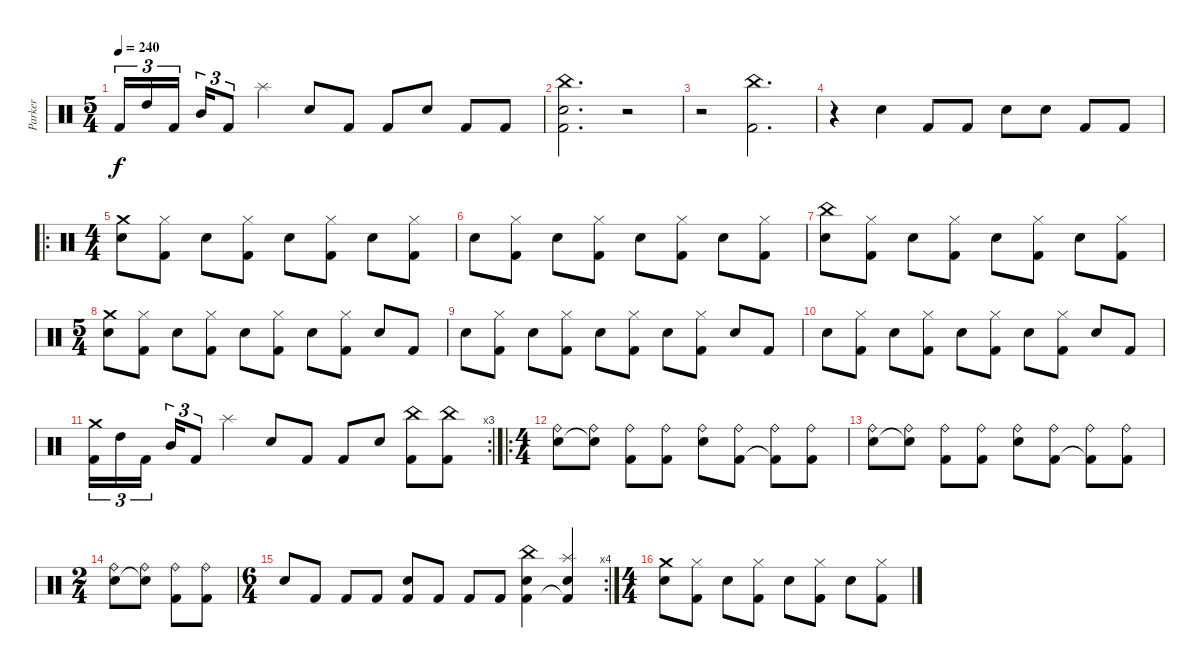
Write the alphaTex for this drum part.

\track ("Parker" "Parker") {instrument percussion}
\staff {score}
\articulation defaults
\ts (5 4)
\tempo 240
\clef neutral
\ks c "Kick (hit) 2".16{tu (3 2) dy f} "High Tom (hit)".16{tu (3 2)} "Kick (hit) 2".16{tu (3 2) beam splitsecondary} "Mid Tom (hit)".16{tu (3 2)} "Kick (hit) 2".8{tu (3 2)} "Splash (hit)".4 "Electric Snare (hit)".8 "Kick (hit) 2".8 "Kick (hit) 2".8 "Electric Snare (hit)".8 "Kick (hit) 2".8 "Kick (hit) 2".8
|
("China (hit)" "Electric Snare (hit)" "Kick (hit) 2").2{d} r.2 |
r.2 ("China (hit)" "Kick (hit) 2").2{d} |
r.4 "Electric Snare (hit)".4 "Kick (hit) 2".8 "Kick (hit) 2".8 "Electric Snare (hit)".8 "Electric Snare (hit)".8 "Kick (hit) 2".8 "Kick (hit) 2".8 |
\ro
\ts (4 4)
("Crash medium (hit)" "Electric Snare (hit)").8 ("Hi-Hat (closed)" "Kick (hit) 2").8 "Electric Snare (hit)".8 ("Hi-Hat (closed)" "Kick (hit) 2").8 "Electric Snare (hit)".8 ("Hi-Hat (closed)" "Kick (hit) 2").8 "Electric Snare (hit)".8 ("Hi-Hat (closed)" "Kick (hit) 2").8 |
"Electric Snare (hit)".8 ("Hi-Hat (closed)" "Kick (hit) 2").8 "Electric Snare (hit)".8 ("Hi-Hat (closed)" "Kick (hit) 2").8 "Electric Snare (hit)".8 ("Hi-Hat (closed)" "Kick (hit) 2").8 "Electric Snare (hit)".8 ("Hi-Hat (closed)" "Kick (hit) 2").8 |
("China (hit)" "Electric Snare (hit)").8 ("Hi-Hat (closed)" "Kick (hit) 2").8 "Electric Snare (hit)".8 ("Hi-Hat (closed)" "Kick (hit) 2").8 "Electric Snare (hit)".8 ("Hi-Hat (closed)" "Kick (hit) 2").8 "Electric Snare (hit)".8 ("Hi-Hat (closed)" "Kick (hit) 2").8 |
\ts (5 4)
("Crash medium (hit)" "Electric Snare (hit)").8 ("Hi-Hat (closed)" "Kick (hit) 2").8 "Electric Snare (hit)".8 ("Hi-Hat (closed)" "Kick (hit) 2").8 "Electric Snare (hit)".8 ("Hi-Hat (closed)" "Kick (hit) 2").8 "Electric Snare (hit)".8 ("Hi-Hat (closed)" "Kick (hit) 2").8 "Electric Snare (hit)".8 "Kick (hit) 2".8 |
"Electric Snare (hit)".8 ("Hi-Hat (closed)" "Kick (hit) 2").8 "Electric Snare (hit)".8 ("Hi-Hat (closed)" "Kick (hit) 2").8 "Electric Snare (hit)".8 ("Hi-Hat (closed)" "Kick (hit) 2").8 "Electric Snare (hit)".8 ("Hi-Hat (closed)" "Kick (hit) 2").8 "Electric Snare (hit)".8 "Kick (hit) 2".8 |
"Electric Snare (hit)".8 ("Hi-Hat (closed)" "Kick (hit) 2").8 "Electric Snare (hit)".8 ("Hi-Hat (closed)" "Kick (hit) 2").8 "Electric Snare (hit)".8 ("Hi-Hat (closed)" "Kick (hit) 2").8 "Electric Snare (hit)".8 ("Hi-Hat (closed)" "Kick (hit) 2").8 "Electric Snare (hit)".8 "Kick (hit) 2".8 |
\rc 3
("Crash medium (hit)" "Kick (hit) 2").16{tu (3 2)} "High Tom (hit)".16{tu (3 2)} "Kick (hit) 2".16{tu (3 2) beam splitsecondary} "Mid Tom (hit)".16{tu (3 2)} "Kick (hit) 2".8{tu (3 2)} "Splash (hit)".4 "Electric Snare (hit)".8 "Kick (hit) 2".8 "Kick (hit) 2".8 "Electric Snare (hit)".8 ("China (hit)" "Kick (hit) 2").8 ("China (hit)" "Kick (hit) 2").8 |
\ro
\ts (4 4)
("Ride (bell)" "Electric Snare (hit)").8 ("Ride (bell)" "Electric Snare (hit)"{t}).8 ("Ride (bell)" "Kick (hit) 2").8 ("Ride (bell)" "Kick (hit) 2").8 ("Ride (bell)" "Electric Snare (hit)").8 ("Ride (bell)" "Kick (hit) 2").8 ("Ride (bell)" "Kick (hit) 2"{t}).8 ("Ride (bell)" "Kick (hit) 2").8 |
("Ride (bell)" "Electric Snare (hit)").8 ("Ride (bell)" "Electric Snare (hit)"{t}).8 ("Ride (bell)" "Kick (hit) 2").8 ("Ride (bell)" "Kick (hit) 2").8 ("Ride (bell)" "Electric Snare (hit)").8 ("Ride (bell)" "Kick (hit) 2").8 ("Ride (bell)" "Kick (hit) 2"{t}).8 ("Ride (bell)" "Kick (hit) 2").8 |
\ts (2 4)
("Ride (bell)" "Electric Snare (hit)").8 ("Ride (bell)" "Electric Snare (hit)"{t}).8 ("Ride (bell)" "Kick (hit) 2").8 ("Ride (bell)" "Kick (hit) 2").8 |
\rc 4
\ts (6 4)
"Electric Snare (hit)".8 "Kick (hit) 2".8 "Kick (hit) 2".8 "Kick (hit) 2".8 ("Electric Snare (hit)" "Kick (hit) 2").8 "Kick (hit) 2".8 "Kick (hit) 2".8 "Kick (hit) 2".8 ("China (hit)" "Electric Snare (hit)" "Kick (hit) 2").4 ("Splash (hit)" "Electric Snare (hit)" "Kick (hit) 2"{t}).4 |
\ts (4 4)
("Crash medium (hit)" "Electric Snare (hit)").8 ("Hi-Hat (closed)" "Kick (hit) 2").8 "Electric Snare (hit)".8 ("Hi-Hat (closed)" "Kick (hit) 2").8 "Electric Snare (hit)".8 ("Hi-Hat (closed)" "Kick (hit) 2").8 "Electric Snare (hit)".8 ("Hi-Hat (closed)" "Kick (hit) 2").8
